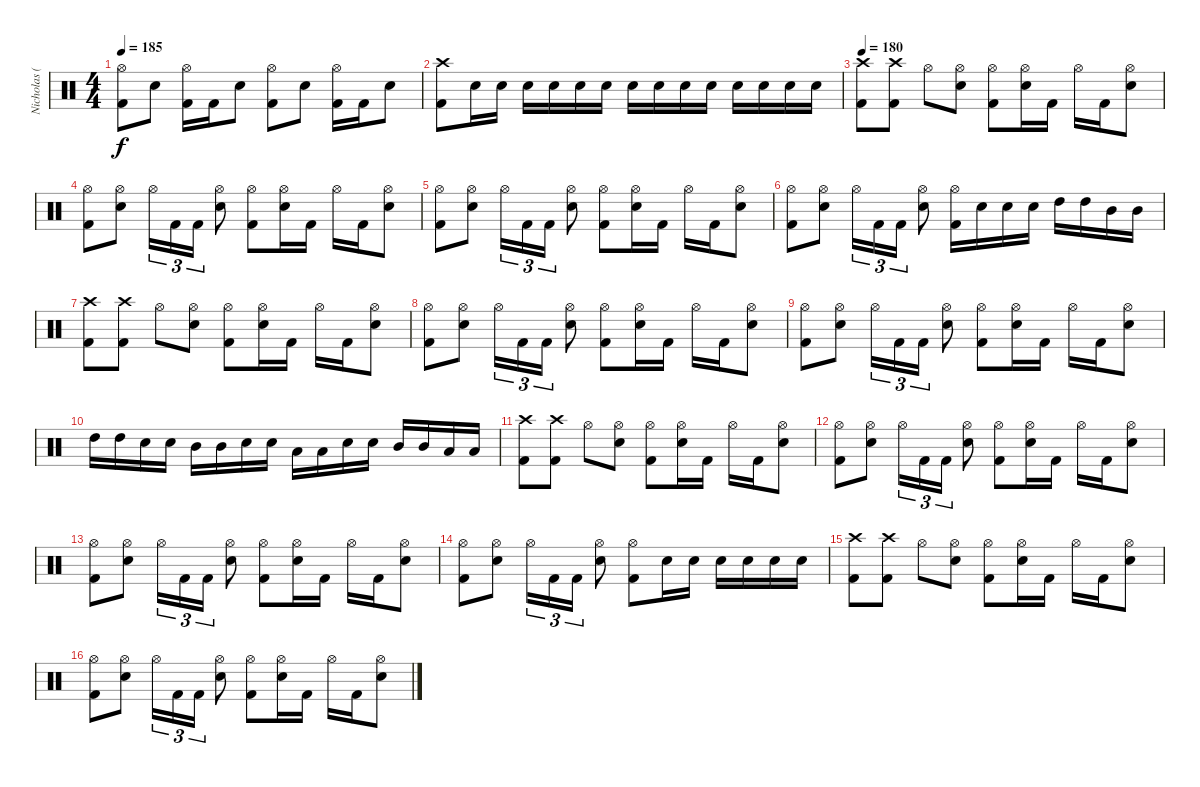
\track ("Nicholas (Drums)" "Nicholas (") {instrument percussion}
\staff {score}
\articulation defaults
\ts (4 4)
\tempo 185
\clef neutral
\ks c
("Hi-Hat (open)" "Kick (hit) 2").8{dy f} "Electric Snare (hit)".8 ("Hi-Hat (open)" "Kick (hit) 2").16 "Kick (hit) 2".16 "Electric Snare (hit)".8 ("Hi-Hat (open)" "Kick (hit) 2").8 "Electric Snare (hit)".8 ("Hi-Hat (open)" "Kick (hit) 2").16 "Kick (hit) 2".16 "Electric Snare (hit)".8 |
("Crash high (hit)" "Kick (hit) 2").8 "Electric Snare (hit)".16 "Electric Snare (hit)".16 "Electric Snare (hit)".16 "Electric Snare (hit)".16 "Electric Snare (hit)".16 "Electric Snare (hit)".16 "Electric Snare (hit)".16 "Electric Snare (hit)".16 "Electric Snare (hit)".16 "Electric Snare (hit)".16 "Electric Snare (hit)".16 "Electric Snare (hit)".16 "Electric Snare (hit)".16 "Electric Snare (hit)".16 |
\tempo 180
("Crash high (hit)" "Kick (hit) 2").8 ("Crash high (hit)" "Kick (hit) 2").8 "Hi-Hat (open)".8 ("Hi-Hat (open)" "Electric Snare (hit)").8 ("Hi-Hat (open)" "Kick (hit) 2").8 ("Hi-Hat (open)" "Electric Snare (hit)").16 "Kick (hit) 2".16 "Hi-Hat (open)".16 "Kick (hit) 2".16 ("Hi-Hat (open)" "Electric Snare (hit)").8 |
("Hi-Hat (open)" "Kick (hit) 2").8 ("Hi-Hat (open)" "Electric Snare (hit)").8 "Hi-Hat (open)".16{tu (3 2)} "Kick (hit) 2".16{tu (3 2)} "Kick (hit) 2".16{tu (3 2)} ("Hi-Hat (open)" "Electric Snare (hit)").8 ("Hi-Hat (open)" "Kick (hit) 2").8 ("Hi-Hat (open)" "Electric Snare (hit)").16 "Kick (hit) 2".16 "Hi-Hat (open)".16 "Kick (hit) 2".16 ("Hi-Hat (open)" "Electric Snare (hit)").8 |
("Hi-Hat (open)" "Kick (hit) 2").8 ("Hi-Hat (open)" "Electric Snare (hit)").8 "Hi-Hat (open)".16{tu (3 2)} "Kick (hit) 2".16{tu (3 2)} "Kick (hit) 2".16{tu (3 2)} ("Hi-Hat (open)" "Electric Snare (hit)").8 ("Hi-Hat (open)" "Kick (hit) 2").8 ("Hi-Hat (open)" "Electric Snare (hit)").16 "Kick (hit) 2".16 "Hi-Hat (open)".16 "Kick (hit) 2".16 ("Hi-Hat (open)" "Electric Snare (hit)").8 |
("Hi-Hat (open)" "Kick (hit) 2").8 ("Hi-Hat (open)" "Electric Snare (hit)").8 "Hi-Hat (open)".16{tu (3 2)} "Kick (hit) 2".16{tu (3 2)} "Kick (hit) 2".16{tu (3 2)} ("Hi-Hat (open)" "Electric Snare (hit)").8 ("Hi-Hat (open)" "Kick (hit) 2").16 "Electric Snare (hit)".16 "Electric Snare (hit)".16 "Electric Snare (hit)".16 "High Tom (hit)".16 "High Tom (hit)".16 "Mid Tom (hit)".16 "Mid Tom (hit)".16 |
("Crash high (hit)" "Kick (hit) 2").8 ("Crash high (hit)" "Kick (hit) 2").8 "Hi-Hat (open)".8 ("Hi-Hat (open)" "Electric Snare (hit)").8 ("Hi-Hat (open)" "Kick (hit) 2").8 ("Hi-Hat (open)" "Electric Snare (hit)").16 "Kick (hit) 2".16 "Hi-Hat (open)".16 "Kick (hit) 2".16 ("Hi-Hat (open)" "Electric Snare (hit)").8 |
("Hi-Hat (open)" "Kick (hit) 2").8 ("Hi-Hat (open)" "Electric Snare (hit)").8 "Hi-Hat (open)".16{tu (3 2)} "Kick (hit) 2".16{tu (3 2)} "Kick (hit) 2".16{tu (3 2)} ("Hi-Hat (open)" "Electric Snare (hit)").8 ("Hi-Hat (open)" "Kick (hit) 2").8 ("Hi-Hat (open)" "Electric Snare (hit)").16 "Kick (hit) 2".16 "Hi-Hat (open)".16 "Kick (hit) 2".16 ("Hi-Hat (open)" "Electric Snare (hit)").8 |
("Hi-Hat (open)" "Kick (hit) 2").8 ("Hi-Hat (open)" "Electric Snare (hit)").8 "Hi-Hat (open)".16{tu (3 2)} "Kick (hit) 2".16{tu (3 2)} "Kick (hit) 2".16{tu (3 2)} ("Hi-Hat (open)" "Electric Snare (hit)").8 ("Hi-Hat (open)" "Kick (hit) 2").8 ("Hi-Hat (open)" "Electric Snare (hit)").16 "Kick (hit) 2".16 "Hi-Hat (open)".16 "Kick (hit) 2".16 ("Hi-Hat (open)" "Electric Snare (hit)").8 |
"High Tom (hit)".16 "High Tom (hit)".16 "Electric Snare (hit)".16 "Electric Snare (hit)".16 "Mid Tom (hit)".16 "Mid Tom (hit)".16 "Electric Snare (hit)".16 "Electric Snare (hit)".16 "Low Tom (hit)".16 "Low Tom (hit)".16 "Electric Snare (hit)".16 "Electric Snare (hit)".16 "Mid Tom (hit)".16 "Mid Tom (hit)".16 "Low Tom (hit)".16 "Low Tom (hit)".16 |
("Crash high (hit)" "Kick (hit) 2").8 ("Crash high (hit)" "Kick (hit) 2").8 "Hi-Hat (open)".8 ("Hi-Hat (open)" "Electric Snare (hit)").8 ("Hi-Hat (open)" "Kick (hit) 2").8 ("Hi-Hat (open)" "Electric Snare (hit)").16 "Kick (hit) 2".16 "Hi-Hat (open)".16 "Kick (hit) 2".16 ("Hi-Hat (open)" "Electric Snare (hit)").8 |
("Hi-Hat (open)" "Kick (hit) 2").8 ("Hi-Hat (open)" "Electric Snare (hit)").8 "Hi-Hat (open)".16{tu (3 2)} "Kick (hit) 2".16{tu (3 2)} "Kick (hit) 2".16{tu (3 2)} ("Hi-Hat (open)" "Electric Snare (hit)").8 ("Hi-Hat (open)" "Kick (hit) 2").8 ("Hi-Hat (open)" "Electric Snare (hit)").16 "Kick (hit) 2".16 "Hi-Hat (open)".16 "Kick (hit) 2".16 ("Hi-Hat (open)" "Electric Snare (hit)").8 |
("Hi-Hat (open)" "Kick (hit) 2").8 ("Hi-Hat (open)" "Electric Snare (hit)").8 "Hi-Hat (open)".16{tu (3 2)} "Kick (hit) 2".16{tu (3 2)} "Kick (hit) 2".16{tu (3 2)} ("Hi-Hat (open)" "Electric Snare (hit)").8 ("Hi-Hat (open)" "Kick (hit) 2").8 ("Hi-Hat (open)" "Electric Snare (hit)").16 "Kick (hit) 2".16 "Hi-Hat (open)".16 "Kick (hit) 2".16 ("Hi-Hat (open)" "Electric Snare (hit)").8 |
("Hi-Hat (open)" "Kick (hit) 2").8 ("Hi-Hat (open)" "Electric Snare (hit)").8 "Hi-Hat (open)".16{tu (3 2)} "Kick (hit) 2".16{tu (3 2)} "Kick (hit) 2".16{tu (3 2)} ("Hi-Hat (open)" "Electric Snare (hit)").8 ("Hi-Hat (open)" "Kick (hit) 2").8 "Electric Snare (hit)".16 "Electric Snare (hit)".16 "Electric Snare (hit)".16 "Electric Snare (hit)".16 "Electric Snare (hit)".16 "Electric Snare (hit)".16 |
("Crash high (hit)" "Kick (hit) 2").8 ("Crash high (hit)" "Kick (hit) 2").8 "Hi-Hat (open)".8 ("Hi-Hat (open)" "Electric Snare (hit)").8 ("Hi-Hat (open)" "Kick (hit) 2").8 ("Hi-Hat (open)" "Electric Snare (hit)").16 "Kick (hit) 2".16 "Hi-Hat (open)".16 "Kick (hit) 2".16 ("Hi-Hat (open)" "Electric Snare (hit)").8 |
("Hi-Hat (open)" "Kick (hit) 2").8 ("Hi-Hat (open)" "Electric Snare (hit)").8 "Hi-Hat (open)".16{tu (3 2)} "Kick (hit) 2".16{tu (3 2)} "Kick (hit) 2".16{tu (3 2)} ("Hi-Hat (open)" "Electric Snare (hit)").8 ("Hi-Hat (open)" "Kick (hit) 2").8 ("Hi-Hat (open)" "Electric Snare (hit)").16 "Kick (hit) 2".16 "Hi-Hat (open)".16 "Kick (hit) 2".16 ("Hi-Hat (open)" "Electric Snare (hit)").8
